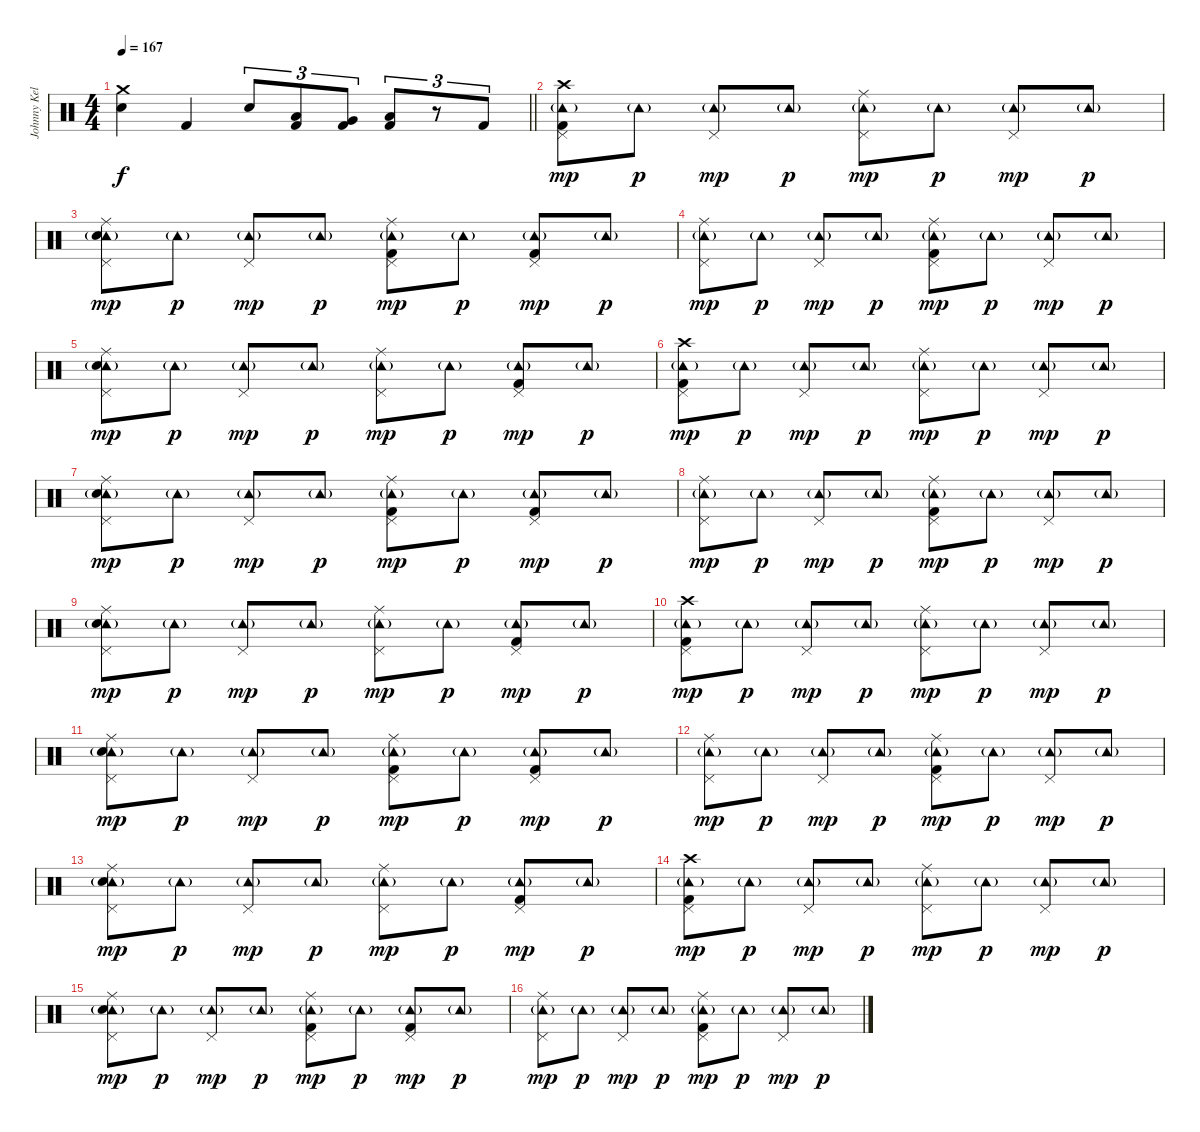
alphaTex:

\track ("Johnny Kelly" "Johnny Kel") {instrument percussion}
\staff {score}
\articulation defaults
\ts (4 4)
\tempo 167
\clef neutral
\barLineRight lightlight
\ks c
("Crash medium (hit)" "Electric Snare (hit)").4{dy f} "Kick (hit) 2".4 "Electric Snare (hit)".8{tu (3 2)} ("Low Tom (hit)" "Kick (hit) 2").8{tu (3 2)} ("Very Low Tom (hit)" "Kick (hit) 2").8{tu (3 2)} ("Low Floor Tom (hit)" "Kick (hit) 2").8{tu (3 2)} r.8{tu (3 2)} "Kick (hit) 2".8{tu (3 2)} |
\section ("" "")
("Tambourine (hit)"{g} "Pedal Hi-Hat (hit)" "Crash high (hit)" "Kick (hit) 2").8{dy mp} "Tambourine (hit)"{g}.8{dy p} ("Tambourine (hit)"{g} "Pedal Hi-Hat (hit)").8{dy mp} "Tambourine (hit)"{g}.8{dy p} ("Tambourine (hit)"{g} "Pedal Hi-Hat (hit)" "Ride (middle)").8{dy mp} "Tambourine (hit)"{g}.8{dy p} ("Tambourine (hit)"{g} "Pedal Hi-Hat (hit)").8{dy mp} "Tambourine (hit)"{g}.8{dy p} |
("Tambourine (hit)"{g} "Pedal Hi-Hat (hit)" "Ride (middle)" "Electric Snare (hit)").8{dy mp} "Tambourine (hit)"{g}.8{dy p} ("Tambourine (hit)"{g} "Pedal Hi-Hat (hit)").8{dy mp} "Tambourine (hit)"{g}.8{dy p} ("Tambourine (hit)"{g} "Pedal Hi-Hat (hit)" "Ride (middle)" "Kick (hit) 2").8{dy mp} "Tambourine (hit)"{g}.8{dy p} ("Tambourine (hit)"{g} "Pedal Hi-Hat (hit)" "Kick (hit) 2").8{dy mp} "Tambourine (hit)"{g}.8{dy p} |
("Tambourine (hit)"{g} "Pedal Hi-Hat (hit)" "Ride (middle)").8{dy mp} "Tambourine (hit)"{g}.8{dy p} ("Tambourine (hit)"{g} "Pedal Hi-Hat (hit)").8{dy mp} "Tambourine (hit)"{g}.8{dy p} ("Tambourine (hit)"{g} "Pedal Hi-Hat (hit)" "Ride (middle)" "Kick (hit) 2").8{dy mp} "Tambourine (hit)"{g}.8{dy p} ("Tambourine (hit)"{g} "Pedal Hi-Hat (hit)").8{dy mp} "Tambourine (hit)"{g}.8{dy p} |
("Tambourine (hit)"{g} "Pedal Hi-Hat (hit)" "Ride (middle)" "Electric Snare (hit)").8{dy mp} "Tambourine (hit)"{g}.8{dy p} ("Tambourine (hit)"{g} "Pedal Hi-Hat (hit)").8{dy mp} "Tambourine (hit)"{g}.8{dy p} ("Tambourine (hit)"{g} "Pedal Hi-Hat (hit)" "Ride (middle)").8{dy mp} "Tambourine (hit)"{g}.8{dy p} ("Tambourine (hit)"{g} "Pedal Hi-Hat (hit)" "Kick (hit) 2").8{dy mp} "Tambourine (hit)"{g}.8{dy p} |
("Tambourine (hit)"{g} "Pedal Hi-Hat (hit)" "Crash high (hit)" "Kick (hit) 2").8{dy mp} "Tambourine (hit)"{g}.8{dy p} ("Tambourine (hit)"{g} "Pedal Hi-Hat (hit)").8{dy mp} "Tambourine (hit)"{g}.8{dy p} ("Tambourine (hit)"{g} "Pedal Hi-Hat (hit)" "Ride (middle)").8{dy mp} "Tambourine (hit)"{g}.8{dy p} ("Tambourine (hit)"{g} "Pedal Hi-Hat (hit)").8{dy mp} "Tambourine (hit)"{g}.8{dy p} |
("Tambourine (hit)"{g} "Pedal Hi-Hat (hit)" "Ride (middle)" "Electric Snare (hit)").8{dy mp} "Tambourine (hit)"{g}.8{dy p} ("Tambourine (hit)"{g} "Pedal Hi-Hat (hit)").8{dy mp} "Tambourine (hit)"{g}.8{dy p} ("Tambourine (hit)"{g} "Pedal Hi-Hat (hit)" "Ride (middle)" "Kick (hit) 2").8{dy mp} "Tambourine (hit)"{g}.8{dy p} ("Tambourine (hit)"{g} "Pedal Hi-Hat (hit)" "Kick (hit) 2").8{dy mp} "Tambourine (hit)"{g}.8{dy p} |
("Tambourine (hit)"{g} "Pedal Hi-Hat (hit)" "Ride (middle)").8{dy mp} "Tambourine (hit)"{g}.8{dy p} ("Tambourine (hit)"{g} "Pedal Hi-Hat (hit)").8{dy mp} "Tambourine (hit)"{g}.8{dy p} ("Tambourine (hit)"{g} "Pedal Hi-Hat (hit)" "Ride (middle)" "Kick (hit) 2").8{dy mp} "Tambourine (hit)"{g}.8{dy p} ("Tambourine (hit)"{g} "Pedal Hi-Hat (hit)").8{dy mp} "Tambourine (hit)"{g}.8{dy p} |
("Tambourine (hit)"{g} "Pedal Hi-Hat (hit)" "Ride (middle)" "Electric Snare (hit)").8{dy mp} "Tambourine (hit)"{g}.8{dy p} ("Tambourine (hit)"{g} "Pedal Hi-Hat (hit)").8{dy mp} "Tambourine (hit)"{g}.8{dy p} ("Tambourine (hit)"{g} "Pedal Hi-Hat (hit)" "Ride (middle)").8{dy mp} "Tambourine (hit)"{g}.8{dy p} ("Tambourine (hit)"{g} "Pedal Hi-Hat (hit)" "Kick (hit) 2").8{dy mp} "Tambourine (hit)"{g}.8{dy p} |
("Tambourine (hit)"{g} "Pedal Hi-Hat (hit)" "Crash high (hit)" "Kick (hit) 2").8{dy mp} "Tambourine (hit)"{g}.8{dy p} ("Tambourine (hit)"{g} "Pedal Hi-Hat (hit)").8{dy mp} "Tambourine (hit)"{g}.8{dy p} ("Tambourine (hit)"{g} "Pedal Hi-Hat (hit)" "Ride (middle)").8{dy mp} "Tambourine (hit)"{g}.8{dy p} ("Tambourine (hit)"{g} "Pedal Hi-Hat (hit)").8{dy mp} "Tambourine (hit)"{g}.8{dy p} |
("Tambourine (hit)"{g} "Pedal Hi-Hat (hit)" "Ride (middle)" "Electric Snare (hit)").8{dy mp} "Tambourine (hit)"{g}.8{dy p} ("Tambourine (hit)"{g} "Pedal Hi-Hat (hit)").8{dy mp} "Tambourine (hit)"{g}.8{dy p} ("Tambourine (hit)"{g} "Pedal Hi-Hat (hit)" "Ride (middle)" "Kick (hit) 2").8{dy mp} "Tambourine (hit)"{g}.8{dy p} ("Tambourine (hit)"{g} "Pedal Hi-Hat (hit)" "Kick (hit) 2").8{dy mp} "Tambourine (hit)"{g}.8{dy p} |
("Tambourine (hit)"{g} "Pedal Hi-Hat (hit)" "Ride (middle)").8{dy mp} "Tambourine (hit)"{g}.8{dy p} ("Tambourine (hit)"{g} "Pedal Hi-Hat (hit)").8{dy mp} "Tambourine (hit)"{g}.8{dy p} ("Tambourine (hit)"{g} "Pedal Hi-Hat (hit)" "Ride (middle)" "Kick (hit) 2").8{dy mp} "Tambourine (hit)"{g}.8{dy p} ("Tambourine (hit)"{g} "Pedal Hi-Hat (hit)").8{dy mp} "Tambourine (hit)"{g}.8{dy p} |
("Tambourine (hit)"{g} "Pedal Hi-Hat (hit)" "Ride (middle)" "Electric Snare (hit)").8{dy mp} "Tambourine (hit)"{g}.8{dy p} ("Tambourine (hit)"{g} "Pedal Hi-Hat (hit)").8{dy mp} "Tambourine (hit)"{g}.8{dy p} ("Tambourine (hit)"{g} "Pedal Hi-Hat (hit)" "Ride (middle)").8{dy mp} "Tambourine (hit)"{g}.8{dy p} ("Tambourine (hit)"{g} "Pedal Hi-Hat (hit)" "Kick (hit) 2").8{dy mp} "Tambourine (hit)"{g}.8{dy p} |
("Tambourine (hit)"{g} "Pedal Hi-Hat (hit)" "Crash high (hit)" "Kick (hit) 2").8{dy mp} "Tambourine (hit)"{g}.8{dy p} ("Tambourine (hit)"{g} "Pedal Hi-Hat (hit)").8{dy mp} "Tambourine (hit)"{g}.8{dy p} ("Tambourine (hit)"{g} "Pedal Hi-Hat (hit)" "Ride (middle)").8{dy mp} "Tambourine (hit)"{g}.8{dy p} ("Tambourine (hit)"{g} "Pedal Hi-Hat (hit)").8{dy mp} "Tambourine (hit)"{g}.8{dy p} |
("Tambourine (hit)"{g} "Pedal Hi-Hat (hit)" "Ride (middle)" "Electric Snare (hit)").8{dy mp} "Tambourine (hit)"{g}.8{dy p} ("Tambourine (hit)"{g} "Pedal Hi-Hat (hit)").8{dy mp} "Tambourine (hit)"{g}.8{dy p} ("Tambourine (hit)"{g} "Pedal Hi-Hat (hit)" "Ride (middle)" "Kick (hit) 2").8{dy mp} "Tambourine (hit)"{g}.8{dy p} ("Tambourine (hit)"{g} "Pedal Hi-Hat (hit)" "Kick (hit) 2").8{dy mp} "Tambourine (hit)"{g}.8{dy p} |
("Tambourine (hit)"{g} "Pedal Hi-Hat (hit)" "Ride (middle)").8{dy mp} "Tambourine (hit)"{g}.8{dy p} ("Tambourine (hit)"{g} "Pedal Hi-Hat (hit)").8{dy mp} "Tambourine (hit)"{g}.8{dy p} ("Tambourine (hit)"{g} "Pedal Hi-Hat (hit)" "Ride (middle)" "Kick (hit) 2").8{dy mp} "Tambourine (hit)"{g}.8{dy p} ("Tambourine (hit)"{g} "Pedal Hi-Hat (hit)").8{dy mp} "Tambourine (hit)"{g}.8{dy p}
